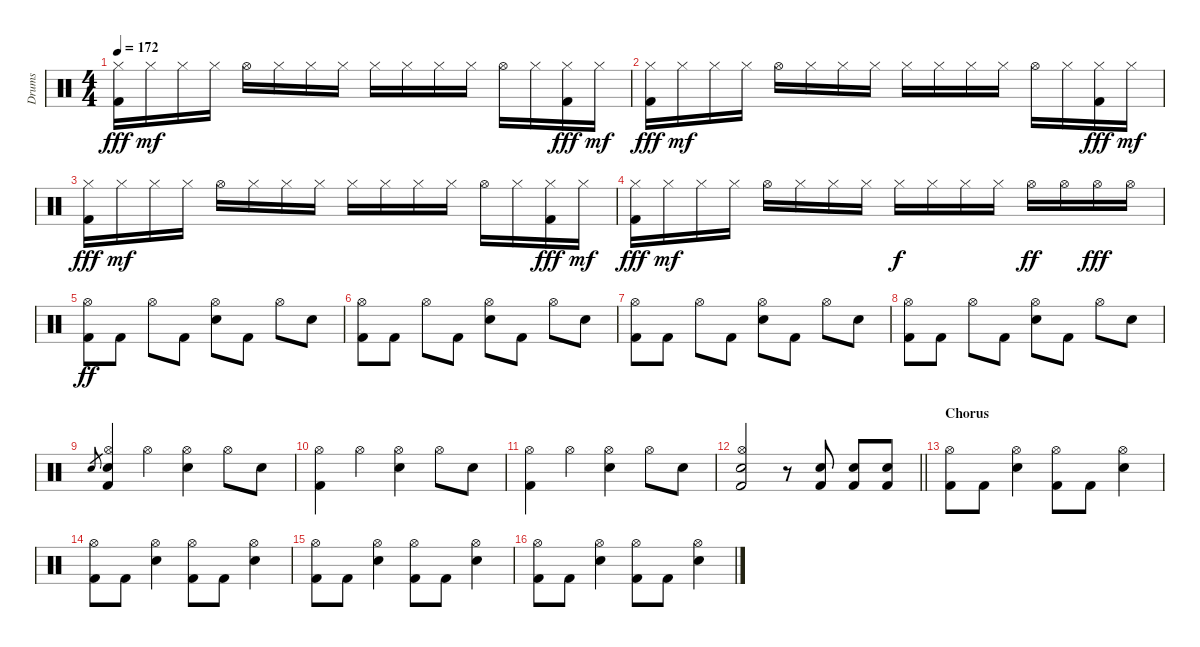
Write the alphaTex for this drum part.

\track ("Drums" "Drums") {instrument percussion}
\staff {score}
\articulation defaults
\ts (4 4)
\tempo 172
\clef neutral
\ks c
("Hi-Hat (closed)" "Kick (hit) 2").16{dy fff} "Hi-Hat (closed)".16{dy mf} "Hi-Hat (closed)".16 "Hi-Hat (closed)".16 "Hi-Hat (open)".16 "Hi-Hat (closed)".16 "Hi-Hat (closed)".16 "Hi-Hat (closed)".16 "Hi-Hat (closed)".16 "Hi-Hat (closed)".16 "Hi-Hat (closed)".16 "Hi-Hat (closed)".16 "Hi-Hat (open)".16 "Hi-Hat (closed)".16 ("Hi-Hat (closed)" "Kick (hit) 2").16{dy fff} "Hi-Hat (closed)".16{dy mf} |
("Hi-Hat (closed)" "Kick (hit) 2").16{dy fff} "Hi-Hat (closed)".16{dy mf} "Hi-Hat (closed)".16 "Hi-Hat (closed)".16 "Hi-Hat (open)".16 "Hi-Hat (closed)".16 "Hi-Hat (closed)".16 "Hi-Hat (closed)".16 "Hi-Hat (closed)".16 "Hi-Hat (closed)".16 "Hi-Hat (closed)".16 "Hi-Hat (closed)".16 "Hi-Hat (open)".16 "Hi-Hat (closed)".16 ("Hi-Hat (closed)" "Kick (hit) 2").16{dy fff} "Hi-Hat (closed)".16{dy mf} |
("Hi-Hat (closed)" "Kick (hit) 2").16{dy fff} "Hi-Hat (closed)".16{dy mf} "Hi-Hat (closed)".16 "Hi-Hat (closed)".16 "Hi-Hat (open)".16 "Hi-Hat (closed)".16 "Hi-Hat (closed)".16 "Hi-Hat (closed)".16 "Hi-Hat (closed)".16 "Hi-Hat (closed)".16 "Hi-Hat (closed)".16 "Hi-Hat (closed)".16 "Hi-Hat (open)".16 "Hi-Hat (closed)".16 ("Hi-Hat (closed)" "Kick (hit) 2").16{dy fff} "Hi-Hat (closed)".16{dy mf} |
("Hi-Hat (closed)" "Kick (hit) 2").16{dy fff} "Hi-Hat (closed)".16{dy mf} "Hi-Hat (closed)".16 "Hi-Hat (closed)".16 "Hi-Hat (open)".16 "Hi-Hat (closed)".16 "Hi-Hat (closed)".16 "Hi-Hat (closed)".16 "Hi-Hat (closed)".16{dy f} "Hi-Hat (closed)".16 "Hi-Hat (closed)".16 "Hi-Hat (closed)".16 "Hi-Hat (open)".16{dy ff} "Hi-Hat (open)".16 "Hi-Hat (open)".16{dy fff} "Hi-Hat (open)".16 |
("Hi-Hat (open)" "Kick (hit) 2").8{dy ff} "Kick (hit) 2".8 "Hi-Hat (open)".8 "Kick (hit) 2".8 ("Hi-Hat (open)" "Snare (hit) 2").8 "Kick (hit) 2".8 "Hi-Hat (open)".8 "Snare (hit) 2".8 |
("Hi-Hat (open)" "Kick (hit) 2").8 "Kick (hit) 2".8 "Hi-Hat (open)".8 "Kick (hit) 2".8 ("Hi-Hat (open)" "Snare (hit) 2").8 "Kick (hit) 2".8 "Hi-Hat (open)".8 "Snare (hit) 2".8 |
("Hi-Hat (open)" "Kick (hit) 2").8 "Kick (hit) 2".8 "Hi-Hat (open)".8 "Kick (hit) 2".8 ("Hi-Hat (open)" "Snare (hit) 2").8 "Kick (hit) 2".8 "Hi-Hat (open)".8 "Snare (hit) 2".8 |
("Hi-Hat (open)" "Kick (hit) 2").8 "Kick (hit) 2".8 "Hi-Hat (open)".8 "Kick (hit) 2".8 ("Hi-Hat (open)" "Snare (hit) 2").8 "Kick (hit) 2".8 "Hi-Hat (open)".8 "Snare (hit) 2".8 |
"Snare (hit) 2".8{gr} ("Hi-Hat (open)" "Snare (hit) 2" "Kick (hit) 2").4 "Hi-Hat (open)".4 ("Hi-Hat (open)" "Snare (hit) 2").4 "Hi-Hat (open)".8 "Snare (hit) 2".8 |
("Hi-Hat (open)" "Kick (hit) 2").4 "Hi-Hat (open)".4 ("Hi-Hat (open)" "Snare (hit) 2").4 "Hi-Hat (open)".8 "Snare (hit) 2".8 |
("Hi-Hat (open)" "Kick (hit) 2").4 "Hi-Hat (open)".4 ("Hi-Hat (open)" "Snare (hit) 2").4 "Hi-Hat (open)".8 "Snare (hit) 2".8 |
\barLineRight lightlight
("Hi-Hat (open)" "Snare (hit) 2" "Kick (hit) 2").2 r.8 ("Snare (hit) 2" "Kick (hit) 2").8 ("Snare (hit) 2" "Kick (hit) 2").8 ("Snare (hit) 2" "Kick (hit) 2").8 |
\section ("" "Chorus")
("Hi-Hat (open)" "Kick (hit) 2").8 "Kick (hit) 2".8 ("Hi-Hat (open)" "Snare (hit) 2").4 ("Hi-Hat (open)" "Kick (hit) 2").8 "Kick (hit) 2".8 ("Hi-Hat (open)" "Snare (hit) 2").4 |
("Hi-Hat (open)" "Kick (hit) 2").8 "Kick (hit) 2".8 ("Hi-Hat (open)" "Snare (hit) 2").4 ("Hi-Hat (open)" "Kick (hit) 2").8 "Kick (hit) 2".8 ("Hi-Hat (open)" "Snare (hit) 2").4 |
("Hi-Hat (open)" "Kick (hit) 2").8 "Kick (hit) 2".8 ("Hi-Hat (open)" "Snare (hit) 2").4 ("Hi-Hat (open)" "Kick (hit) 2").8 "Kick (hit) 2".8 ("Hi-Hat (open)" "Snare (hit) 2").4 |
("Hi-Hat (open)" "Kick (hit) 2").8 "Kick (hit) 2".8 ("Hi-Hat (open)" "Snare (hit) 2").4 ("Hi-Hat (open)" "Kick (hit) 2").8 "Kick (hit) 2".8 ("Hi-Hat (open)" "Snare (hit) 2").4
